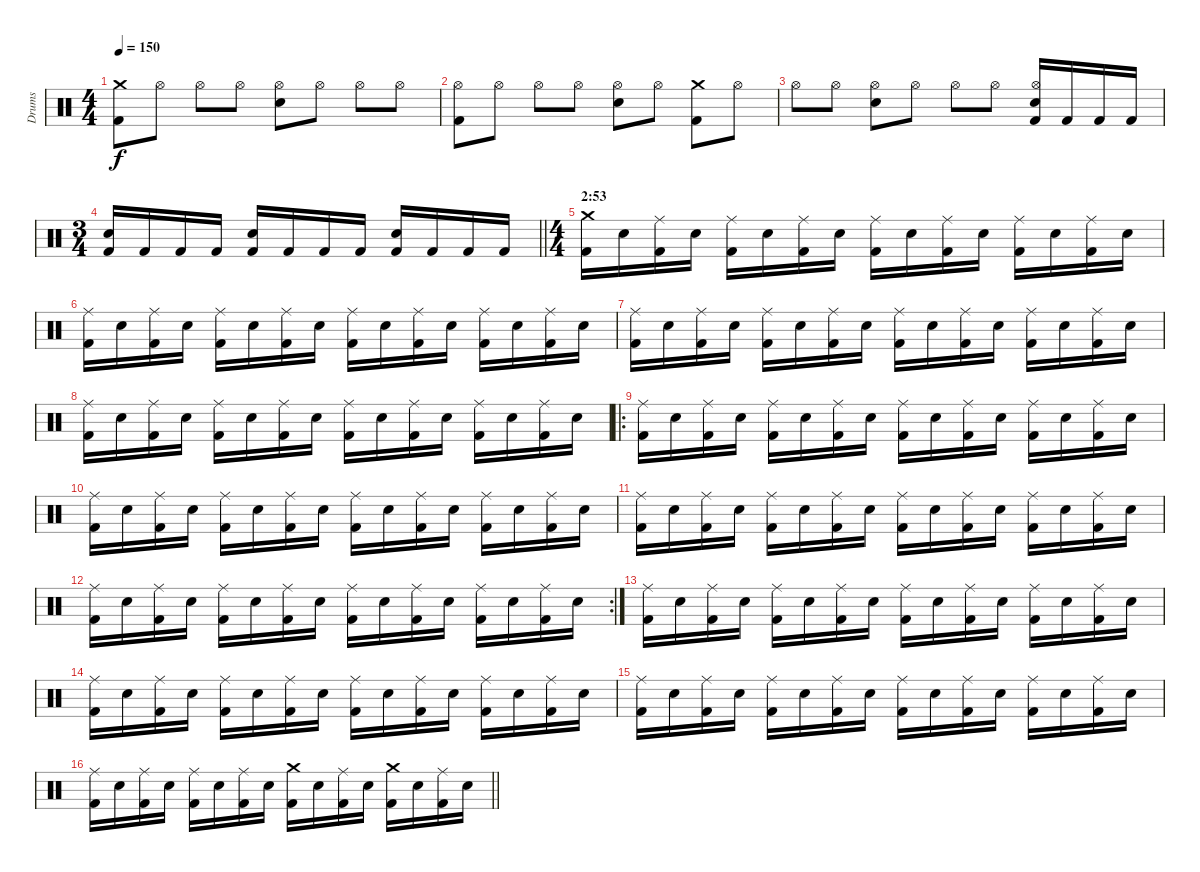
\track ("Drums" "Drums") {instrument percussion}
\staff {score}
\articulation defaults
\ts (4 4)
\tempo 150
\clef neutral
\ks c
("Crash medium (hit)" "Kick (hit) 2").8{dy f} "Hi-Hat (open)".8 "Hi-Hat (open)".8 "Hi-Hat (open)".8 ("Hi-Hat (open)" "Electric Snare (hit)").8 "Hi-Hat (open)".8 "Hi-Hat (open)".8 "Hi-Hat (open)".8 |
("Hi-Hat (open)" "Kick (hit) 2").8 "Hi-Hat (open)".8 "Hi-Hat (open)".8 "Hi-Hat (open)".8 ("Hi-Hat (open)" "Electric Snare (hit)").8 "Hi-Hat (open)".8 ("Crash medium (hit)" "Kick (hit) 2").8 "Hi-Hat (open)".8 |
"Hi-Hat (open)".8 "Hi-Hat (open)".8 ("Hi-Hat (open)" "Electric Snare (hit)").8 "Hi-Hat (open)".8 "Hi-Hat (open)".8 "Hi-Hat (open)".8 ("Hi-Hat (open)" "Electric Snare (hit)" "Kick (hit) 2").16 "Kick (hit) 2".16 "Kick (hit) 2".16 "Kick (hit) 2".16 |
\ts (3 4)
\barLineRight lightlight
("Electric Snare (hit)" "Kick (hit) 2").16 "Kick (hit) 2".16 "Kick (hit) 2".16 "Kick (hit) 2".16 ("Electric Snare (hit)" "Kick (hit) 2").16 "Kick (hit) 2".16 "Kick (hit) 2".16 "Kick (hit) 2".16 ("Electric Snare (hit)" "Kick (hit) 2").16 "Kick (hit) 2".16 "Kick (hit) 2".16 "Kick (hit) 2".16 |
\ts (4 4)
\section ("" "2:53")
("Crash medium (hit)" "Kick (hit) 2").16 "Electric Snare (hit)".16 ("Ride (middle)" "Kick (hit) 2").16 "Electric Snare (hit)".16 ("Ride (middle)" "Kick (hit) 2").16 "Electric Snare (hit)".16 ("Ride (middle)" "Kick (hit) 2").16 "Electric Snare (hit)".16 ("Ride (middle)" "Kick (hit) 2").16 "Electric Snare (hit)".16 ("Ride (middle)" "Kick (hit) 2").16 "Electric Snare (hit)".16 ("Ride (middle)" "Kick (hit) 2").16 "Electric Snare (hit)".16 ("Ride (middle)" "Kick (hit) 2").16 "Electric Snare (hit)".16 |
("Ride (middle)" "Kick (hit) 2").16 "Electric Snare (hit)".16 ("Ride (middle)" "Kick (hit) 2").16 "Electric Snare (hit)".16 ("Ride (middle)" "Kick (hit) 2").16 "Electric Snare (hit)".16 ("Ride (middle)" "Kick (hit) 2").16 "Electric Snare (hit)".16 ("Ride (middle)" "Kick (hit) 2").16 "Electric Snare (hit)".16 ("Ride (middle)" "Kick (hit) 2").16 "Electric Snare (hit)".16 ("Ride (middle)" "Kick (hit) 2").16 "Electric Snare (hit)".16 ("Ride (middle)" "Kick (hit) 2").16 "Electric Snare (hit)".16 |
("Ride (middle)" "Kick (hit) 2").16 "Electric Snare (hit)".16 ("Ride (middle)" "Kick (hit) 2").16 "Electric Snare (hit)".16 ("Ride (middle)" "Kick (hit) 2").16 "Electric Snare (hit)".16 ("Ride (middle)" "Kick (hit) 2").16 "Electric Snare (hit)".16 ("Ride (middle)" "Kick (hit) 2").16 "Electric Snare (hit)".16 ("Ride (middle)" "Kick (hit) 2").16 "Electric Snare (hit)".16 ("Ride (middle)" "Kick (hit) 2").16 "Electric Snare (hit)".16 ("Ride (middle)" "Kick (hit) 2").16 "Electric Snare (hit)".16 |
("Ride (middle)" "Kick (hit) 2").16 "Electric Snare (hit)".16 ("Ride (middle)" "Kick (hit) 2").16 "Electric Snare (hit)".16 ("Ride (middle)" "Kick (hit) 2").16 "Electric Snare (hit)".16 ("Ride (middle)" "Kick (hit) 2").16 "Electric Snare (hit)".16 ("Ride (middle)" "Kick (hit) 2").16 "Electric Snare (hit)".16 ("Ride (middle)" "Kick (hit) 2").16 "Electric Snare (hit)".16 ("Ride (middle)" "Kick (hit) 2").16 "Electric Snare (hit)".16 ("Ride (middle)" "Kick (hit) 2").16 "Electric Snare (hit)".16 |
\ro
("Ride (middle)" "Kick (hit) 2").16 "Electric Snare (hit)".16 ("Ride (middle)" "Kick (hit) 2").16 "Electric Snare (hit)".16 ("Ride (middle)" "Kick (hit) 2").16 "Electric Snare (hit)".16 ("Ride (middle)" "Kick (hit) 2").16 "Electric Snare (hit)".16 ("Ride (middle)" "Kick (hit) 2").16 "Electric Snare (hit)".16 ("Ride (middle)" "Kick (hit) 2").16 "Electric Snare (hit)".16 ("Ride (middle)" "Kick (hit) 2").16 "Electric Snare (hit)".16 ("Ride (middle)" "Kick (hit) 2").16 "Electric Snare (hit)".16 |
("Ride (middle)" "Kick (hit) 2").16 "Electric Snare (hit)".16 ("Ride (middle)" "Kick (hit) 2").16 "Electric Snare (hit)".16 ("Ride (middle)" "Kick (hit) 2").16 "Electric Snare (hit)".16 ("Ride (middle)" "Kick (hit) 2").16 "Electric Snare (hit)".16 ("Ride (middle)" "Kick (hit) 2").16 "Electric Snare (hit)".16 ("Ride (middle)" "Kick (hit) 2").16 "Electric Snare (hit)".16 ("Ride (middle)" "Kick (hit) 2").16 "Electric Snare (hit)".16 ("Ride (middle)" "Kick (hit) 2").16 "Electric Snare (hit)".16 |
("Ride (middle)" "Kick (hit) 2").16 "Electric Snare (hit)".16 ("Ride (middle)" "Kick (hit) 2").16 "Electric Snare (hit)".16 ("Ride (middle)" "Kick (hit) 2").16 "Electric Snare (hit)".16 ("Ride (middle)" "Kick (hit) 2").16 "Electric Snare (hit)".16 ("Ride (middle)" "Kick (hit) 2").16 "Electric Snare (hit)".16 ("Ride (middle)" "Kick (hit) 2").16 "Electric Snare (hit)".16 ("Ride (middle)" "Kick (hit) 2").16 "Electric Snare (hit)".16 ("Ride (middle)" "Kick (hit) 2").16 "Electric Snare (hit)".16 |
\rc 2
("Ride (middle)" "Kick (hit) 2").16 "Electric Snare (hit)".16 ("Ride (middle)" "Kick (hit) 2").16 "Electric Snare (hit)".16 ("Ride (middle)" "Kick (hit) 2").16 "Electric Snare (hit)".16 ("Ride (middle)" "Kick (hit) 2").16 "Electric Snare (hit)".16 ("Ride (middle)" "Kick (hit) 2").16 "Electric Snare (hit)".16 ("Ride (middle)" "Kick (hit) 2").16 "Electric Snare (hit)".16 ("Ride (middle)" "Kick (hit) 2").16 "Electric Snare (hit)".16 ("Ride (middle)" "Kick (hit) 2").16 "Electric Snare (hit)".16 |
("Ride (middle)" "Kick (hit) 2").16 "Electric Snare (hit)".16 ("Ride (middle)" "Kick (hit) 2").16 "Electric Snare (hit)".16 ("Ride (middle)" "Kick (hit) 2").16 "Electric Snare (hit)".16 ("Ride (middle)" "Kick (hit) 2").16 "Electric Snare (hit)".16 ("Ride (middle)" "Kick (hit) 2").16 "Electric Snare (hit)".16 ("Ride (middle)" "Kick (hit) 2").16 "Electric Snare (hit)".16 ("Ride (middle)" "Kick (hit) 2").16 "Electric Snare (hit)".16 ("Ride (middle)" "Kick (hit) 2").16 "Electric Snare (hit)".16 |
("Ride (middle)" "Kick (hit) 2").16 "Electric Snare (hit)".16 ("Ride (middle)" "Kick (hit) 2").16 "Electric Snare (hit)".16 ("Ride (middle)" "Kick (hit) 2").16 "Electric Snare (hit)".16 ("Ride (middle)" "Kick (hit) 2").16 "Electric Snare (hit)".16 ("Ride (middle)" "Kick (hit) 2").16 "Electric Snare (hit)".16 ("Ride (middle)" "Kick (hit) 2").16 "Electric Snare (hit)".16 ("Ride (middle)" "Kick (hit) 2").16 "Electric Snare (hit)".16 ("Ride (middle)" "Kick (hit) 2").16 "Electric Snare (hit)".16 |
("Ride (middle)" "Kick (hit) 2").16 "Electric Snare (hit)".16 ("Ride (middle)" "Kick (hit) 2").16 "Electric Snare (hit)".16 ("Ride (middle)" "Kick (hit) 2").16 "Electric Snare (hit)".16 ("Ride (middle)" "Kick (hit) 2").16 "Electric Snare (hit)".16 ("Ride (middle)" "Kick (hit) 2").16 "Electric Snare (hit)".16 ("Ride (middle)" "Kick (hit) 2").16 "Electric Snare (hit)".16 ("Ride (middle)" "Kick (hit) 2").16 "Electric Snare (hit)".16 ("Ride (middle)" "Kick (hit) 2").16 "Electric Snare (hit)".16 |
\barLineRight lightlight
("Ride (middle)" "Kick (hit) 2").16 "Electric Snare (hit)".16 ("Ride (middle)" "Kick (hit) 2").16 "Electric Snare (hit)".16 ("Ride (middle)" "Kick (hit) 2").16 "Electric Snare (hit)".16 ("Ride (middle)" "Kick (hit) 2").16 "Electric Snare (hit)".16 ("Crash medium (hit)" "Kick (hit) 2").16 "Electric Snare (hit)".16 ("Ride (middle)" "Kick (hit) 2").16 "Electric Snare (hit)".16 ("Crash medium (hit)" "Kick (hit) 2").16 "Electric Snare (hit)".16 ("Ride (middle)" "Kick (hit) 2").16 "Electric Snare (hit)".16
